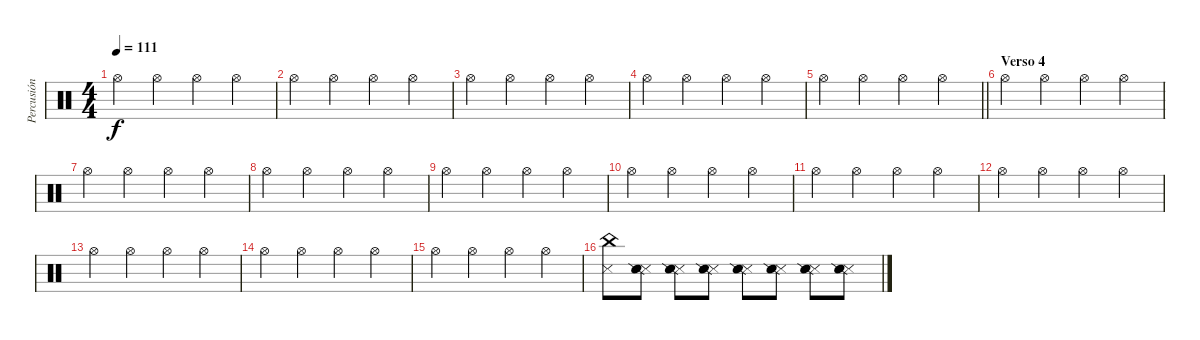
\track ("Percusión" "Percusión") {instrument percussion}
\staff {score}
\articulation defaults
\ts (4 4)
\tempo 111
\clef neutral
\ks c "Hi-Hat (open)".4{dy f} "Hi-Hat (open)".4 "Hi-Hat (open)".4 "Hi-Hat (open)".4
|
"Hi-Hat (open)".4 "Hi-Hat (open)".4 "Hi-Hat (open)".4 "Hi-Hat (open)".4 |
"Hi-Hat (open)".4 "Hi-Hat (open)".4 "Hi-Hat (open)".4 "Hi-Hat (open)".4 |
"Hi-Hat (open)".4 "Hi-Hat (open)".4 "Hi-Hat (open)".4 "Hi-Hat (open)".4 |
\barLineRight lightlight "Hi-Hat (open)".4 "Hi-Hat (open)".4 "Hi-Hat (open)".4 "Hi-Hat (open)".4
|
\section ("" "Verso 4")
"Hi-Hat (open)".4 "Hi-Hat (open)".4 "Hi-Hat (open)".4 "Hi-Hat (open)".4 |
"Hi-Hat (open)".4 "Hi-Hat (open)".4 "Hi-Hat (open)".4 "Hi-Hat (open)".4 |
"Hi-Hat (open)".4 "Hi-Hat (open)".4 "Hi-Hat (open)".4 "Hi-Hat (open)".4 |
"Hi-Hat (open)".4 "Hi-Hat (open)".4 "Hi-Hat (open)".4 "Hi-Hat (open)".4 |
"Hi-Hat (open)".4 "Hi-Hat (open)".4 "Hi-Hat (open)".4 "Hi-Hat (open)".4 |
"Hi-Hat (open)".4 "Hi-Hat (open)".4 "Hi-Hat (open)".4 "Hi-Hat (open)".4 |
"Hi-Hat (open)".4 "Hi-Hat (open)".4 "Hi-Hat (open)".4 "Hi-Hat (open)".4 |
"Hi-Hat (open)".4 "Hi-Hat (open)".4 "Hi-Hat (open)".4 "Hi-Hat (open)".4 |
"Hi-Hat (open)".4 "Hi-Hat (open)".4 "Hi-Hat (open)".4 "Hi-Hat (open)".4 |
"Hi-Hat (open)".4 "Hi-Hat (open)".4 "Hi-Hat (open)".4 "Hi-Hat (open)".4 |
("Snare (side stick) 3" "China (hit)").8 ("Snare (side stick) 3" "Snare (side stick) 2").8 ("Snare (side stick) 3" "Snare (side stick) 2").8 ("Snare (side stick) 3" "Snare (side stick) 2").8 ("Snare (side stick) 3" "Snare (side stick) 2").8 ("Snare (side stick) 3" "Snare (side stick) 2").8 ("Snare (side stick) 3" "Snare (side stick) 2").8 ("Snare (side stick) 3" "Snare (side stick) 2").8
